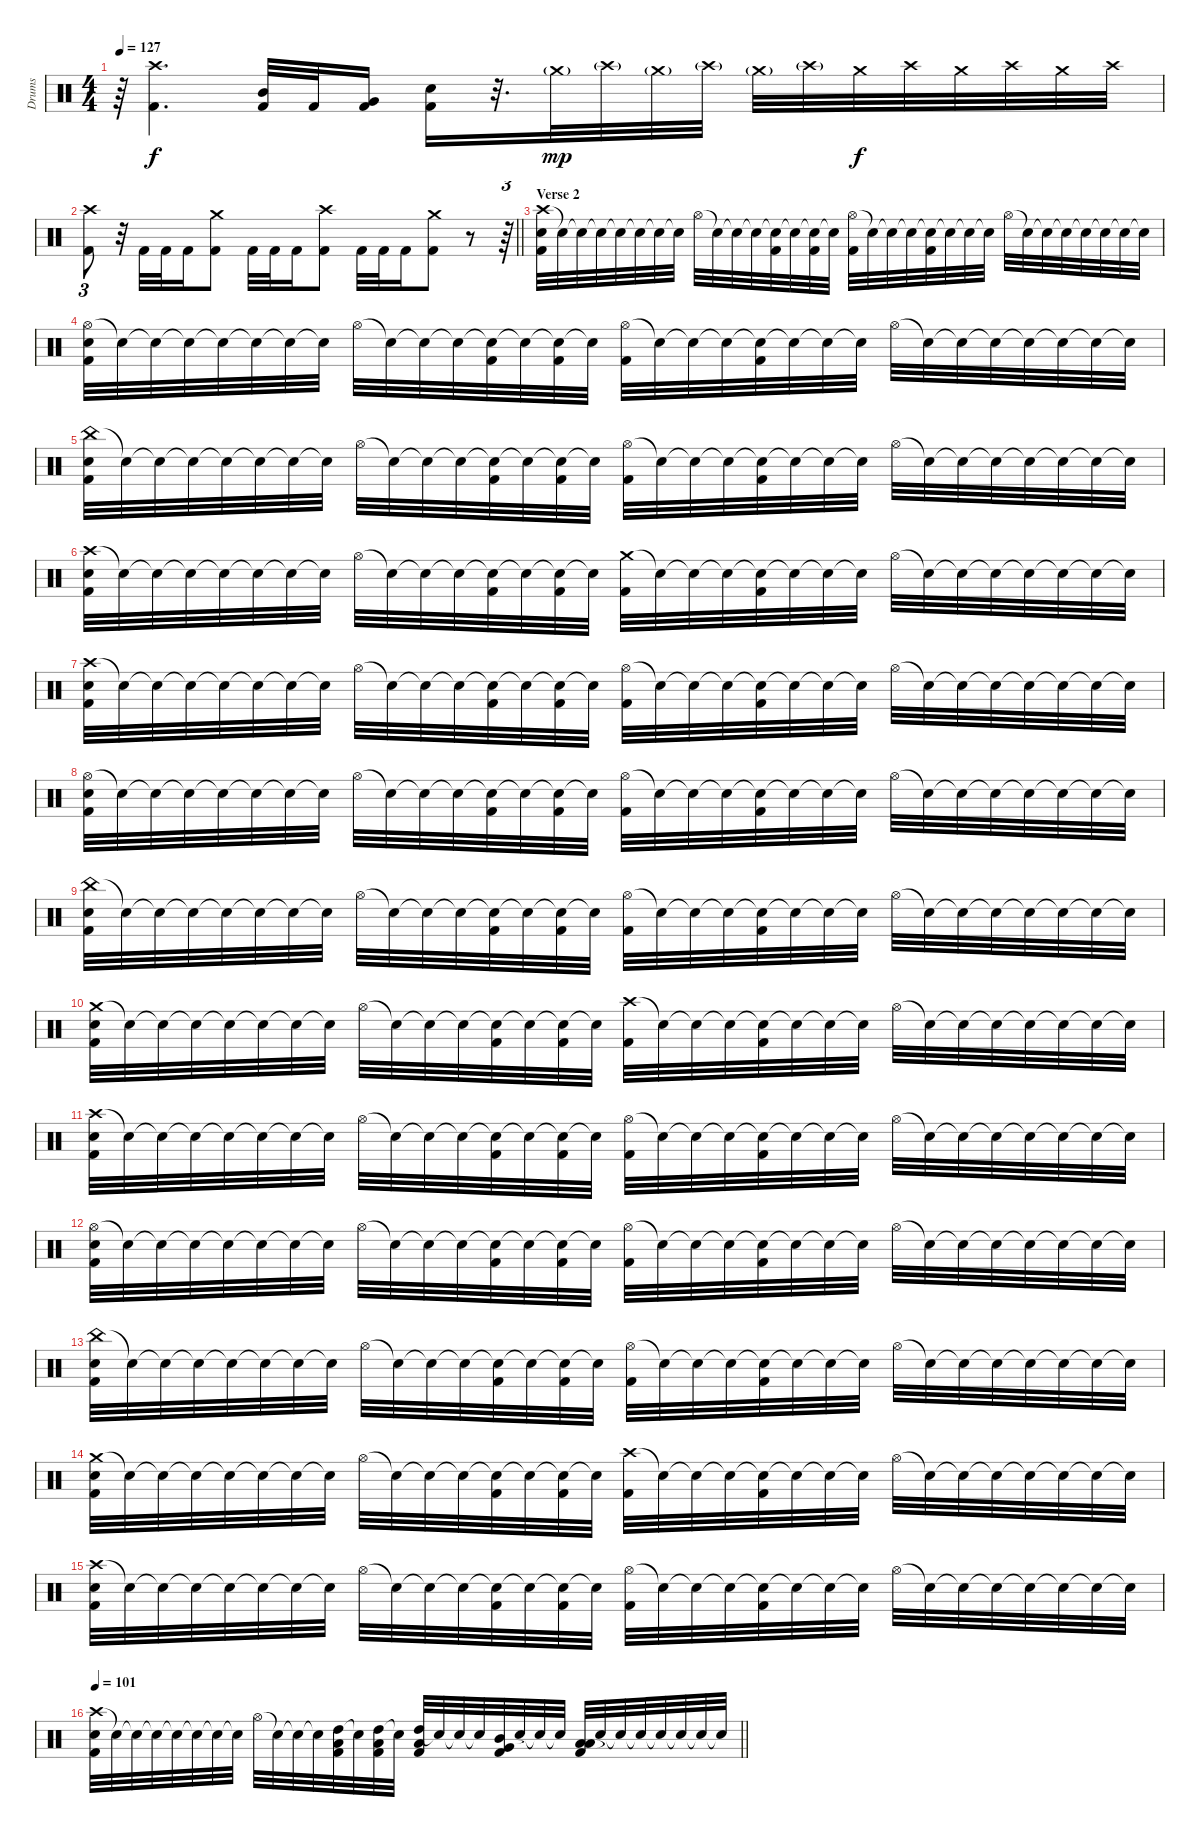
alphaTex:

\track ("Drums" "Drums") {instrument percussion}
\staff {score}
\articulation defaults
\ts (4 4)
\tempo 127
\clef neutral
\ks c
r.64{dy f} ("Crash high (hit)" "Kick (hit) 2").4{d} ("Mid Tom (hit)" "Kick (hit) 2").32 "Kick (hit) 2".32 ("Very Low Tom (hit)" "Kick (hit) 2").16 ("Snare (hit) 2" "Kick (hit) 2").16 r.32{d} "Crash medium (hit)"{g}.32{dy mp} "Crash high (hit)"{g}.32 "Crash medium (hit)"{g}.32 "Crash high (hit)"{g}.32 "Crash medium (hit)"{g}.32 "Crash high (hit)"{g}.32 "Crash medium (hit)".32{dy f} "Crash high (hit)".32 "Crash medium (hit)".32 "Crash high (hit)".32 "Crash medium (hit)".32 "Crash high (hit)".32 |
\barLineRight lightlight
("Crash high (hit)" "Kick (hit) 2").8{tu (3 2)} r.32 "Kick (hit) 2".32 "Kick (hit) 2".32 "Kick (hit) 2".16 ("Crash medium (hit)" "Kick (hit) 2").8 "Kick (hit) 2".32 "Kick (hit) 2".32 "Kick (hit) 2".16 ("Crash high (hit)" "Kick (hit) 2").8 "Kick (hit) 2".32 "Kick (hit) 2".32 "Kick (hit) 2".16 ("Crash medium (hit)" "Kick (hit) 2").8 r.8 r.64{tu (3 2)} |
\section ("" "Verse 2")
("Crash high (hit)" "Snare (hit) 2" "Kick (hit) 2").32 "Snare (hit)"{t}.32 "Snare (hit)"{t}.32 "Snare (hit)"{t}.32 "Snare (hit)"{t}.32 "Snare (hit)"{t}.32 "Snare (hit)"{t}.32 "Snare (hit)"{t}.32 "Hi-Hat (open)".32 "Snare (hit)"{t}.32 "Snare (hit)"{t}.32 "Snare (hit)"{t}.32 ("Snare (hit)"{t} "Kick (hit) 2").32 "Snare (hit)"{t}.32 ("Snare (hit)"{t} "Kick (hit) 2").32 "Snare (hit)"{t}.32 ("Hi-Hat (open)" "Kick (hit) 2").32 "Snare (hit)"{t}.32 "Snare (hit)"{t}.32 "Snare (hit)"{t}.32 ("Snare (hit)"{t} "Kick (hit) 2").32 "Snare (hit)"{t}.32 "Snare (hit)"{t}.32 "Snare (hit)"{t}.32 "Hi-Hat (open)".32 "Snare (hit)"{t}.32 "Snare (hit)"{t}.32 "Snare (hit)"{t}.32 "Snare (hit)"{t}.32 "Snare (hit)"{t}.32 "Snare (hit)"{t}.32 "Snare (hit)"{t}.32 |
("Hi-Hat (open)" "Snare (hit) 2" "Kick (hit) 2").32 "Snare (hit)"{t}.32 "Snare (hit)"{t}.32 "Snare (hit)"{t}.32 "Snare (hit)"{t}.32 "Snare (hit)"{t}.32 "Snare (hit)"{t}.32 "Snare (hit)"{t}.32 "Hi-Hat (open)".32 "Snare (hit)"{t}.32 "Snare (hit)"{t}.32 "Snare (hit)"{t}.32 ("Snare (hit)"{t} "Kick (hit) 2").32 "Snare (hit)"{t}.32 ("Snare (hit)"{t} "Kick (hit) 2").32 "Snare (hit)"{t}.32 ("Hi-Hat (open)" "Kick (hit) 2").32 "Snare (hit)"{t}.32 "Snare (hit)"{t}.32 "Snare (hit)"{t}.32 ("Snare (hit)"{t} "Kick (hit) 2").32 "Snare (hit)"{t}.32 "Snare (hit)"{t}.32 "Snare (hit)"{t}.32 "Hi-Hat (open)".32 "Snare (hit)"{t}.32 "Snare (hit)"{t}.32 "Snare (hit)"{t}.32 "Snare (hit)"{t}.32 "Snare (hit)"{t}.32 "Snare (hit)"{t}.32 "Snare (hit)"{t}.32 |
("China (hit)" "Snare (hit) 2" "Kick (hit) 2").32 "Snare (hit)"{t}.32 "Snare (hit)"{t}.32 "Snare (hit)"{t}.32 "Snare (hit)"{t}.32 "Snare (hit)"{t}.32 "Snare (hit)"{t}.32 "Snare (hit)"{t}.32 "Hi-Hat (open)".32 "Snare (hit)"{t}.32 "Snare (hit)"{t}.32 "Snare (hit)"{t}.32 ("Snare (hit)"{t} "Kick (hit) 2").32 "Snare (hit)"{t}.32 ("Snare (hit)"{t} "Kick (hit) 2").32 "Snare (hit)"{t}.32 ("Hi-Hat (open)" "Kick (hit) 2").32 "Snare (hit)"{t}.32 "Snare (hit)"{t}.32 "Snare (hit)"{t}.32 ("Snare (hit)"{t} "Kick (hit) 2").32 "Snare (hit)"{t}.32 "Snare (hit)"{t}.32 "Snare (hit)"{t}.32 "Hi-Hat (open)".32 "Snare (hit)"{t}.32 "Snare (hit)"{t}.32 "Snare (hit)"{t}.32 "Snare (hit)"{t}.32 "Snare (hit)"{t}.32 "Snare (hit)"{t}.32 "Snare (hit)"{t}.32 |
("Crash high (hit)" "Snare (hit) 2" "Kick (hit) 2").32 "Snare (hit)"{t}.32 "Snare (hit)"{t}.32 "Snare (hit)"{t}.32 "Snare (hit)"{t}.32 "Snare (hit)"{t}.32 "Snare (hit)"{t}.32 "Snare (hit)"{t}.32 "Hi-Hat (open)".32 "Snare (hit)"{t}.32 "Snare (hit)"{t}.32 "Snare (hit)"{t}.32 ("Snare (hit)"{t} "Kick (hit) 2").32 "Snare (hit)"{t}.32 ("Snare (hit)"{t} "Kick (hit) 2").32 "Snare (hit)"{t}.32 ("Crash medium (hit)" "Kick (hit) 2").32 "Snare (hit)"{t}.32 "Snare (hit)"{t}.32 "Snare (hit)"{t}.32 ("Snare (hit)"{t} "Kick (hit) 2").32 "Snare (hit)"{t}.32 "Snare (hit)"{t}.32 "Snare (hit)"{t}.32 "Hi-Hat (open)".32 "Snare (hit)"{t}.32 "Snare (hit)"{t}.32 "Snare (hit)"{t}.32 "Snare (hit)"{t}.32 "Snare (hit)"{t}.32 "Snare (hit)"{t}.32 "Snare (hit)"{t}.32 |
("Crash high (hit)" "Snare (hit) 2" "Kick (hit) 2").32 "Snare (hit)"{t}.32 "Snare (hit)"{t}.32 "Snare (hit)"{t}.32 "Snare (hit)"{t}.32 "Snare (hit)"{t}.32 "Snare (hit)"{t}.32 "Snare (hit)"{t}.32 "Hi-Hat (open)".32 "Snare (hit)"{t}.32 "Snare (hit)"{t}.32 "Snare (hit)"{t}.32 ("Snare (hit)"{t} "Kick (hit) 2").32 "Snare (hit)"{t}.32 ("Snare (hit)"{t} "Kick (hit) 2").32 "Snare (hit)"{t}.32 ("Hi-Hat (open)" "Kick (hit) 2").32 "Snare (hit)"{t}.32 "Snare (hit)"{t}.32 "Snare (hit)"{t}.32 ("Snare (hit)"{t} "Kick (hit) 2").32 "Snare (hit)"{t}.32 "Snare (hit)"{t}.32 "Snare (hit)"{t}.32 "Hi-Hat (open)".32 "Snare (hit)"{t}.32 "Snare (hit)"{t}.32 "Snare (hit)"{t}.32 "Snare (hit)"{t}.32 "Snare (hit)"{t}.32 "Snare (hit)"{t}.32 "Snare (hit)"{t}.32 |
("Hi-Hat (open)" "Snare (hit) 2" "Kick (hit) 2").32 "Snare (hit)"{t}.32 "Snare (hit)"{t}.32 "Snare (hit)"{t}.32 "Snare (hit)"{t}.32 "Snare (hit)"{t}.32 "Snare (hit)"{t}.32 "Snare (hit)"{t}.32 "Hi-Hat (open)".32 "Snare (hit)"{t}.32 "Snare (hit)"{t}.32 "Snare (hit)"{t}.32 ("Snare (hit)"{t} "Kick (hit) 2").32 "Snare (hit)"{t}.32 ("Snare (hit)"{t} "Kick (hit) 2").32 "Snare (hit)"{t}.32 ("Hi-Hat (open)" "Kick (hit) 2").32 "Snare (hit)"{t}.32 "Snare (hit)"{t}.32 "Snare (hit)"{t}.32 ("Snare (hit)"{t} "Kick (hit) 2").32 "Snare (hit)"{t}.32 "Snare (hit)"{t}.32 "Snare (hit)"{t}.32 "Hi-Hat (open)".32 "Snare (hit)"{t}.32 "Snare (hit)"{t}.32 "Snare (hit)"{t}.32 "Snare (hit)"{t}.32 "Snare (hit)"{t}.32 "Snare (hit)"{t}.32 "Snare (hit)"{t}.32 |
("China (hit)" "Snare (hit) 2" "Kick (hit) 2").32 "Snare (hit)"{t}.32 "Snare (hit)"{t}.32 "Snare (hit)"{t}.32 "Snare (hit)"{t}.32 "Snare (hit)"{t}.32 "Snare (hit)"{t}.32 "Snare (hit)"{t}.32 "Hi-Hat (open)".32 "Snare (hit)"{t}.32 "Snare (hit)"{t}.32 "Snare (hit)"{t}.32 ("Snare (hit)"{t} "Kick (hit) 2").32 "Snare (hit)"{t}.32 ("Snare (hit)"{t} "Kick (hit) 2").32 "Snare (hit)"{t}.32 ("Hi-Hat (open)" "Kick (hit) 2").32 "Snare (hit)"{t}.32 "Snare (hit)"{t}.32 "Snare (hit)"{t}.32 ("Snare (hit)"{t} "Kick (hit) 2").32 "Snare (hit)"{t}.32 "Snare (hit)"{t}.32 "Snare (hit)"{t}.32 "Hi-Hat (open)".32 "Snare (hit)"{t}.32 "Snare (hit)"{t}.32 "Snare (hit)"{t}.32 "Snare (hit)"{t}.32 "Snare (hit)"{t}.32 "Snare (hit)"{t}.32 "Snare (hit)"{t}.32 |
("Crash medium (hit)" "Snare (hit) 2" "Kick (hit) 2").32 "Snare (hit)"{t}.32 "Snare (hit)"{t}.32 "Snare (hit)"{t}.32 "Snare (hit)"{t}.32 "Snare (hit)"{t}.32 "Snare (hit)"{t}.32 "Snare (hit)"{t}.32 "Hi-Hat (open)".32 "Snare (hit)"{t}.32 "Snare (hit)"{t}.32 "Snare (hit)"{t}.32 ("Snare (hit)"{t} "Kick (hit) 2").32 "Snare (hit)"{t}.32 ("Snare (hit)"{t} "Kick (hit) 2").32 "Snare (hit)"{t}.32 ("Crash high (hit)" "Kick (hit) 2").32 "Snare (hit)"{t}.32 "Snare (hit)"{t}.32 "Snare (hit)"{t}.32 ("Snare (hit)"{t} "Kick (hit) 2").32 "Snare (hit)"{t}.32 "Snare (hit)"{t}.32 "Snare (hit)"{t}.32 "Hi-Hat (open)".32 "Snare (hit)"{t}.32 "Snare (hit)"{t}.32 "Snare (hit)"{t}.32 "Snare (hit)"{t}.32 "Snare (hit)"{t}.32 "Snare (hit)"{t}.32 "Snare (hit)"{t}.32 |
("Crash high (hit)" "Snare (hit) 2" "Kick (hit) 2").32 "Snare (hit)"{t}.32 "Snare (hit)"{t}.32 "Snare (hit)"{t}.32 "Snare (hit)"{t}.32 "Snare (hit)"{t}.32 "Snare (hit)"{t}.32 "Snare (hit)"{t}.32 "Hi-Hat (open)".32 "Snare (hit)"{t}.32 "Snare (hit)"{t}.32 "Snare (hit)"{t}.32 ("Snare (hit)"{t} "Kick (hit) 2").32 "Snare (hit)"{t}.32 ("Snare (hit)"{t} "Kick (hit) 2").32 "Snare (hit)"{t}.32 ("Hi-Hat (open)" "Kick (hit) 2").32 "Snare (hit)"{t}.32 "Snare (hit)"{t}.32 "Snare (hit)"{t}.32 ("Snare (hit)"{t} "Kick (hit) 2").32 "Snare (hit)"{t}.32 "Snare (hit)"{t}.32 "Snare (hit)"{t}.32 "Hi-Hat (open)".32 "Snare (hit)"{t}.32 "Snare (hit)"{t}.32 "Snare (hit)"{t}.32 "Snare (hit)"{t}.32 "Snare (hit)"{t}.32 "Snare (hit)"{t}.32 "Snare (hit)"{t}.32 |
("Hi-Hat (open)" "Snare (hit) 2" "Kick (hit) 2").32 "Snare (hit)"{t}.32 "Snare (hit)"{t}.32 "Snare (hit)"{t}.32 "Snare (hit)"{t}.32 "Snare (hit)"{t}.32 "Snare (hit)"{t}.32 "Snare (hit)"{t}.32 "Hi-Hat (open)".32 "Snare (hit)"{t}.32 "Snare (hit)"{t}.32 "Snare (hit)"{t}.32 ("Snare (hit)"{t} "Kick (hit) 2").32 "Snare (hit)"{t}.32 ("Snare (hit)"{t} "Kick (hit) 2").32 "Snare (hit)"{t}.32 ("Hi-Hat (open)" "Kick (hit) 2").32 "Snare (hit)"{t}.32 "Snare (hit)"{t}.32 "Snare (hit)"{t}.32 ("Snare (hit)"{t} "Kick (hit) 2").32 "Snare (hit)"{t}.32 "Snare (hit)"{t}.32 "Snare (hit)"{t}.32 "Hi-Hat (open)".32 "Snare (hit)"{t}.32 "Snare (hit)"{t}.32 "Snare (hit)"{t}.32 "Snare (hit)"{t}.32 "Snare (hit)"{t}.32 "Snare (hit)"{t}.32 "Snare (hit)"{t}.32 |
("China (hit)" "Snare (hit) 2" "Kick (hit) 2").32 "Snare (hit)"{t}.32 "Snare (hit)"{t}.32 "Snare (hit)"{t}.32 "Snare (hit)"{t}.32 "Snare (hit)"{t}.32 "Snare (hit)"{t}.32 "Snare (hit)"{t}.32 "Hi-Hat (open)".32 "Snare (hit)"{t}.32 "Snare (hit)"{t}.32 "Snare (hit)"{t}.32 ("Snare (hit)"{t} "Kick (hit) 2").32 "Snare (hit)"{t}.32 ("Snare (hit)"{t} "Kick (hit) 2").32 "Snare (hit)"{t}.32 ("Hi-Hat (open)" "Kick (hit) 2").32 "Snare (hit)"{t}.32 "Snare (hit)"{t}.32 "Snare (hit)"{t}.32 ("Snare (hit)"{t} "Kick (hit) 2").32 "Snare (hit)"{t}.32 "Snare (hit)"{t}.32 "Snare (hit)"{t}.32 "Hi-Hat (open)".32 "Snare (hit)"{t}.32 "Snare (hit)"{t}.32 "Snare (hit)"{t}.32 "Snare (hit)"{t}.32 "Snare (hit)"{t}.32 "Snare (hit)"{t}.32 "Snare (hit)"{t}.32 |
("Crash medium (hit)" "Snare (hit) 2" "Kick (hit) 2").32 "Snare (hit)"{t}.32 "Snare (hit)"{t}.32 "Snare (hit)"{t}.32 "Snare (hit)"{t}.32 "Snare (hit)"{t}.32 "Snare (hit)"{t}.32 "Snare (hit)"{t}.32 "Hi-Hat (open)".32 "Snare (hit)"{t}.32 "Snare (hit)"{t}.32 "Snare (hit)"{t}.32 ("Snare (hit)"{t} "Kick (hit) 2").32 "Snare (hit)"{t}.32 ("Snare (hit)"{t} "Kick (hit) 2").32 "Snare (hit)"{t}.32 ("Crash high (hit)" "Kick (hit) 2").32 "Snare (hit)"{t}.32 "Snare (hit)"{t}.32 "Snare (hit)"{t}.32 ("Snare (hit)"{t} "Kick (hit) 2").32 "Snare (hit)"{t}.32 "Snare (hit)"{t}.32 "Snare (hit)"{t}.32 "Hi-Hat (open)".32 "Snare (hit)"{t}.32 "Snare (hit)"{t}.32 "Snare (hit)"{t}.32 "Snare (hit)"{t}.32 "Snare (hit)"{t}.32 "Snare (hit)"{t}.32 "Snare (hit)"{t}.32 |
("Crash high (hit)" "Snare (hit) 2" "Kick (hit) 2").32 "Snare (hit)"{t}.32 "Snare (hit)"{t}.32 "Snare (hit)"{t}.32 "Snare (hit)"{t}.32 "Snare (hit)"{t}.32 "Snare (hit)"{t}.32 "Snare (hit)"{t}.32 "Hi-Hat (open)".32 "Snare (hit)"{t}.32 "Snare (hit)"{t}.32 "Snare (hit)"{t}.32 ("Snare (hit)"{t} "Kick (hit) 2").32 "Snare (hit)"{t}.32 ("Snare (hit)"{t} "Kick (hit) 2").32 "Snare (hit)"{t}.32 ("Hi-Hat (open)" "Kick (hit) 2").32 "Snare (hit)"{t}.32 "Snare (hit)"{t}.32 "Snare (hit)"{t}.32 ("Snare (hit)"{t} "Kick (hit) 2").32 "Snare (hit)"{t}.32 "Snare (hit)"{t}.32 "Snare (hit)"{t}.32 "Hi-Hat (open)".32 "Snare (hit)"{t}.32 "Snare (hit)"{t}.32 "Snare (hit)"{t}.32 "Snare (hit)"{t}.32 "Snare (hit)"{t}.32 "Snare (hit)"{t}.32 "Snare (hit)"{t}.32 |
\tempo 101
\barLineRight lightlight
("Crash high (hit)" "Snare (hit) 2" "Kick (hit) 2").32 "Snare (hit)"{t}.32 "Snare (hit)"{t}.32 "Snare (hit)"{t}.32 "Snare (hit)"{t}.32 "Snare (hit)"{t}.32 "Snare (hit)"{t}.32 "Snare (hit)"{t}.32 "Hi-Hat (open)".32 "Snare (hit)"{t}.32 "Snare (hit)"{t}.32 "Snare (hit)"{t}.32 ("High Tom (hit)" "Low Tom (hit)" "Kick (hit) 2").32 "Snare (hit)"{t}.32 ("High Tom (hit)" "Low Tom (hit)" "Kick (hit) 2").32 "Snare (hit)"{t}.32 ("High Tom (hit)" "Low Tom (hit)" "Kick (hit) 2").32 "Snare (hit)"{t}.32 "Snare (hit)"{t}.32 "Snare (hit)"{t}.32 ("Mid Tom (hit)" "Very Low Tom (hit)" "Kick (hit) 2").32 "Snare (hit)"{t}.32 "Snare (hit)"{t}.32 "Snare (hit)"{t}.32 ("Low Tom (hit)" "Low Floor Tom (hit)" "Kick (hit) 2").32 "Snare (hit)"{t}.32 "Snare (hit)"{t}.32 "Snare (hit)"{t}.32 "Snare (hit)"{t}.32 "Snare (hit)"{t}.32 "Snare (hit)"{t}.32 "Snare (hit)"{t}.32
